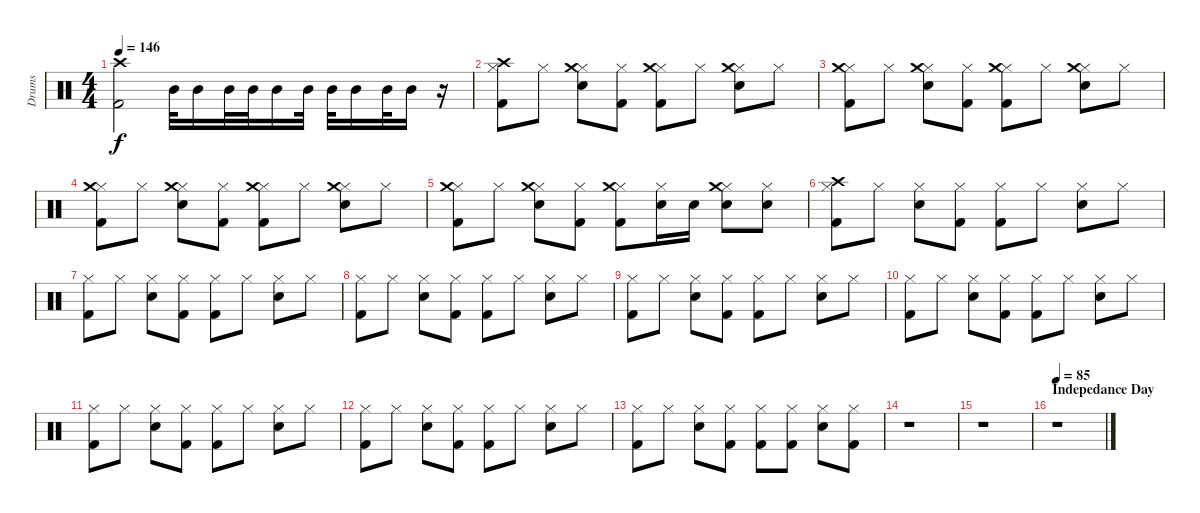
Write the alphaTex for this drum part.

\track ("Drums" "Drums") {instrument percussion}
\staff {score}
\articulation defaults
\ts (4 4)
\tempo 146
\clef neutral
\ks c
("Crash high (hit)" "Kick (hit) 2").2{dy f} "Mid Tom (hit)".32 "Mid Tom (hit)".16 "Mid Tom (hit)".32 "Mid Tom (hit)".32 "Mid Tom (hit)".16 "Mid Tom (hit)".32 "Mid Tom (hit)".32 "Mid Tom (hit)".16 "Mid Tom (hit)".32 "Mid Tom (hit)".16 r.16 |
("Crash high (hit)" "Hi-Hat (closed)" "Kick (hit) 2").8 "Hi-Hat (closed)".8 ("Hi-Hat (closed)" "Crash medium (hit)" "Electric Snare (hit)").8 ("Hi-Hat (closed)" "Kick (hit) 2").8 ("Hi-Hat (closed)" "Crash medium (hit)" "Kick (hit) 2").8 "Hi-Hat (closed)".8 ("Hi-Hat (closed)" "Crash medium (hit)" "Electric Snare (hit)").8 "Hi-Hat (closed)".8 |
("Hi-Hat (closed)" "Crash medium (hit)" "Kick (hit) 2").8 "Hi-Hat (closed)".8 ("Hi-Hat (closed)" "Crash medium (hit)" "Electric Snare (hit)").8 ("Hi-Hat (closed)" "Kick (hit) 2").8 ("Hi-Hat (closed)" "Crash medium (hit)" "Kick (hit) 2").8 "Hi-Hat (closed)".8 ("Hi-Hat (closed)" "Crash medium (hit)" "Electric Snare (hit)").8 "Hi-Hat (closed)".8 |
("Hi-Hat (closed)" "Crash medium (hit)" "Kick (hit) 2").8 "Hi-Hat (closed)".8 ("Hi-Hat (closed)" "Crash medium (hit)" "Electric Snare (hit)").8 ("Hi-Hat (closed)" "Kick (hit) 2").8 ("Hi-Hat (closed)" "Crash medium (hit)" "Kick (hit) 2").8 "Hi-Hat (closed)".8 ("Hi-Hat (closed)" "Crash medium (hit)" "Electric Snare (hit)").8 "Hi-Hat (closed)".8 |
("Hi-Hat (closed)" "Crash medium (hit)" "Kick (hit) 2").8 "Hi-Hat (closed)".8 ("Hi-Hat (closed)" "Crash medium (hit)" "Electric Snare (hit)").8 ("Hi-Hat (closed)" "Kick (hit) 2").8 ("Hi-Hat (closed)" "Crash medium (hit)" "Kick (hit) 2").8 ("Hi-Hat (closed)" "Electric Snare (hit)").16 "Electric Snare (hit)".16 ("Hi-Hat (closed)" "Crash medium (hit)" "Electric Snare (hit)").8 ("Hi-Hat (closed)" "Electric Snare (hit)").8 |
("Crash high (hit)" "Hi-Hat (closed)" "Kick (hit) 2").8 "Hi-Hat (closed)".8 ("Hi-Hat (closed)" "Electric Snare (hit)").8 ("Hi-Hat (closed)" "Kick (hit) 2").8 ("Hi-Hat (closed)" "Kick (hit) 2").8 "Hi-Hat (closed)".8 ("Hi-Hat (closed)" "Electric Snare (hit)").8 "Hi-Hat (closed)".8 |
("Hi-Hat (closed)" "Kick (hit) 2").8 "Hi-Hat (closed)".8 ("Hi-Hat (closed)" "Electric Snare (hit)").8 ("Hi-Hat (closed)" "Kick (hit) 2").8 ("Hi-Hat (closed)" "Kick (hit) 2").8 "Hi-Hat (closed)".8 ("Hi-Hat (closed)" "Electric Snare (hit)").8 "Hi-Hat (closed)".8 |
("Hi-Hat (closed)" "Kick (hit) 2").8 "Hi-Hat (closed)".8 ("Hi-Hat (closed)" "Electric Snare (hit)").8 ("Hi-Hat (closed)" "Kick (hit) 2").8 ("Hi-Hat (closed)" "Kick (hit) 2").8 "Hi-Hat (closed)".8 ("Hi-Hat (closed)" "Electric Snare (hit)").8 "Hi-Hat (closed)".8 |
("Hi-Hat (closed)" "Kick (hit) 2").8 "Hi-Hat (closed)".8 ("Hi-Hat (closed)" "Electric Snare (hit)").8 ("Hi-Hat (closed)" "Kick (hit) 2").8 ("Hi-Hat (closed)" "Kick (hit) 2").8 "Hi-Hat (closed)".8 ("Hi-Hat (closed)" "Electric Snare (hit)").8 "Hi-Hat (closed)".8 |
("Hi-Hat (closed)" "Kick (hit) 2").8 "Hi-Hat (closed)".8 ("Hi-Hat (closed)" "Electric Snare (hit)").8 ("Hi-Hat (closed)" "Kick (hit) 2").8 ("Hi-Hat (closed)" "Kick (hit) 2").8 "Hi-Hat (closed)".8 ("Hi-Hat (closed)" "Electric Snare (hit)").8 "Hi-Hat (closed)".8 |
("Hi-Hat (closed)" "Kick (hit) 2").8 "Hi-Hat (closed)".8 ("Hi-Hat (closed)" "Electric Snare (hit)").8 ("Hi-Hat (closed)" "Kick (hit) 2").8 ("Hi-Hat (closed)" "Kick (hit) 2").8 "Hi-Hat (closed)".8 ("Hi-Hat (closed)" "Electric Snare (hit)").8 "Hi-Hat (closed)".8 |
("Hi-Hat (closed)" "Kick (hit) 2").8 "Hi-Hat (closed)".8 ("Hi-Hat (closed)" "Electric Snare (hit)").8 ("Hi-Hat (closed)" "Kick (hit) 2").8 ("Hi-Hat (closed)" "Kick (hit) 2").8 "Hi-Hat (closed)".8 ("Hi-Hat (closed)" "Electric Snare (hit)").8 "Hi-Hat (closed)".8 |
("Hi-Hat (closed)" "Kick (hit) 2").8{volume 1} "Hi-Hat (closed)".8 ("Hi-Hat (closed)" "Electric Snare (hit)").8 ("Hi-Hat (closed)" "Kick (hit) 2").8 ("Hi-Hat (closed)" "Kick (hit) 2").8 ("Hi-Hat (closed)" "Kick (hit) 2").8 ("Hi-Hat (closed)" "Electric Snare (hit)").8 ("Hi-Hat (closed)" "Kick (hit) 2").8 |
r.1 |
r.1 |
\section ("" "Indepedance Day")
\tempo 85
r.1
